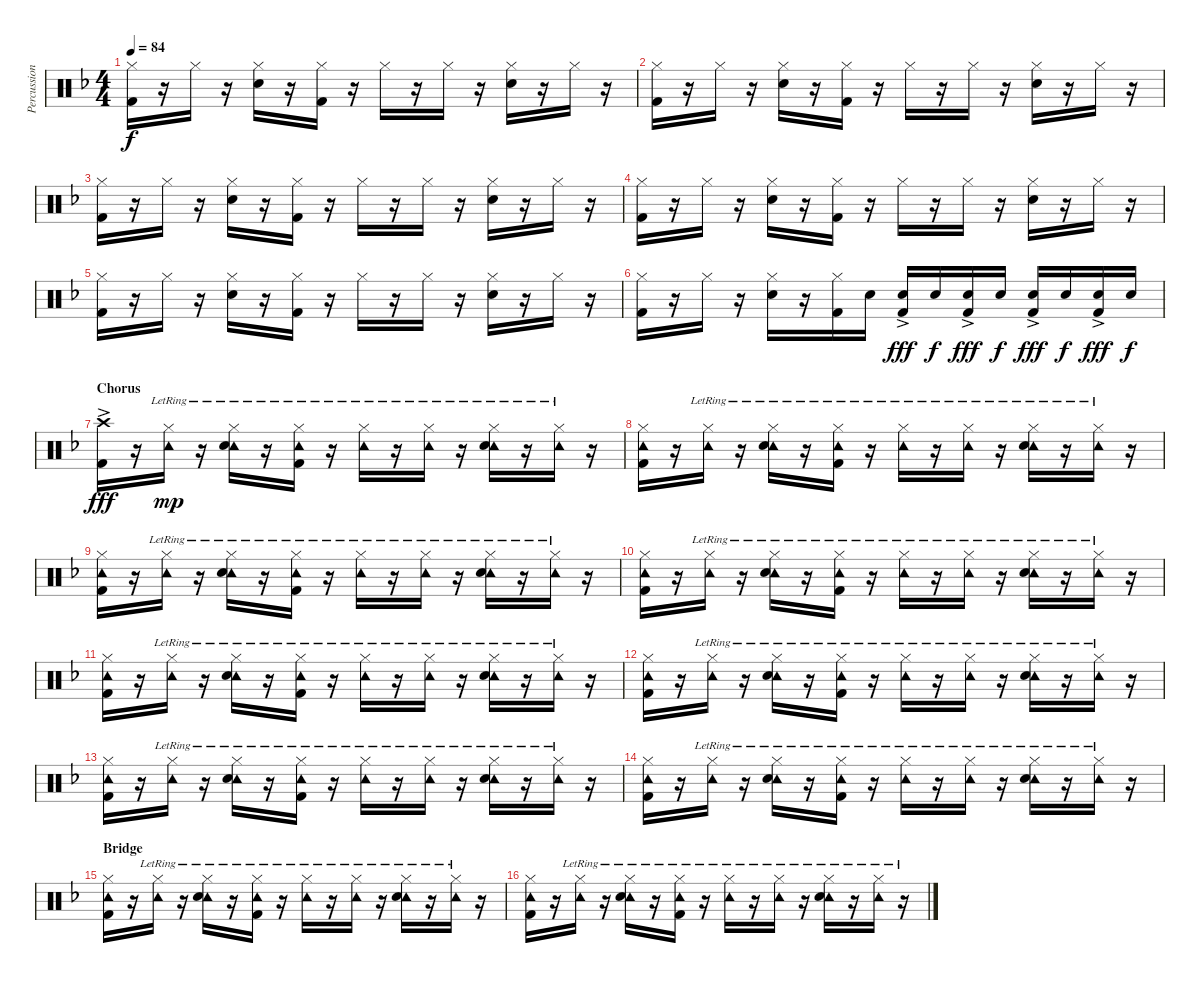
\track ("Percussion" "Percussion") {instrument percussion}
\staff {score}
\articulation defaults
\ts (4 4)
\tempo 84
\clef neutral
\ks f
("Hi-Hat (closed)" "Kick (hit) 2").16{dy f} r.16 "Hi-Hat (closed)".16 r.16 ("Hi-Hat (closed)" "Snare (hit) 2").16 r.16 ("Hi-Hat (closed)" "Kick (hit) 2").16 r.16 "Hi-Hat (closed)".16 r.16 "Hi-Hat (closed)".16 r.16 ("Hi-Hat (closed)" "Snare (hit) 2").16 r.16 "Hi-Hat (closed)".16 r.16 |
("Hi-Hat (closed)" "Kick (hit) 2").16 r.16 "Hi-Hat (closed)".16 r.16 ("Hi-Hat (closed)" "Snare (hit) 2").16 r.16 ("Hi-Hat (closed)" "Kick (hit) 2").16 r.16 "Hi-Hat (closed)".16 r.16 "Hi-Hat (closed)".16 r.16 ("Hi-Hat (closed)" "Snare (hit) 2").16 r.16 "Hi-Hat (closed)".16 r.16 |
("Hi-Hat (closed)" "Kick (hit) 2").16 r.16 "Hi-Hat (closed)".16 r.16 ("Hi-Hat (closed)" "Snare (hit) 2").16 r.16 ("Hi-Hat (closed)" "Kick (hit) 2").16 r.16 "Hi-Hat (closed)".16 r.16 "Hi-Hat (closed)".16 r.16 ("Hi-Hat (closed)" "Snare (hit) 2").16 r.16 "Hi-Hat (closed)".16 r.16 |
("Hi-Hat (closed)" "Kick (hit) 2").16 r.16 "Hi-Hat (closed)".16 r.16 ("Hi-Hat (closed)" "Snare (hit) 2").16 r.16 ("Hi-Hat (closed)" "Kick (hit) 2").16 r.16 "Hi-Hat (closed)".16 r.16 "Hi-Hat (closed)".16 r.16 ("Hi-Hat (closed)" "Snare (hit) 2").16 r.16 "Hi-Hat (closed)".16 r.16 |
("Hi-Hat (closed)" "Kick (hit) 2").16 r.16 "Hi-Hat (closed)".16 r.16 ("Hi-Hat (closed)" "Snare (hit) 2").16 r.16 ("Hi-Hat (closed)" "Kick (hit) 2").16 r.16 "Hi-Hat (closed)".16 r.16 "Hi-Hat (closed)".16 r.16 ("Hi-Hat (closed)" "Snare (hit) 2").16 r.16 "Hi-Hat (closed)".16 r.16 |
("Hi-Hat (closed)" "Kick (hit) 2").16 r.16 "Hi-Hat (closed)".16 r.16 ("Hi-Hat (closed)" "Snare (hit) 2").16 r.16 ("Hi-Hat (closed)" "Kick (hit) 2").16 "Snare (hit) 2".16 ("Snare (hit) 2"{ac} "Kick (hit) 2").16{dy fff} "Snare (hit) 2".16{dy f} ("Snare (hit) 2"{ac} "Kick (hit) 2").16{dy fff} "Snare (hit) 2".16{dy f} ("Snare (hit) 2"{ac} "Kick (hit) 2").16{dy fff} "Snare (hit) 2".16{dy f} ("Snare (hit) 2"{ac} "Kick (hit) 2").16{dy fff} "Snare (hit) 2".16{dy f} |
\section ("" "Chorus")
("Crash high (hit)"{ac} "Kick (hit) 2").16{dy fff} r.16 ("Hi-Hat (closed)" "Tambourine (hit)"{lr}).16{dy mp} r.16 ("Hi-Hat (closed)" "Tambourine (hit)"{lr} "Snare (hit) 2").16 r.16 ("Hi-Hat (closed)" "Tambourine (hit)"{lr} "Kick (hit) 2").16 r.16 ("Hi-Hat (closed)" "Tambourine (hit)"{lr}).16 r.16 ("Hi-Hat (closed)" "Tambourine (hit)"{lr}).16 r.16 ("Hi-Hat (closed)" "Tambourine (hit)"{lr} "Snare (hit) 2").16 r.16 ("Hi-Hat (closed)" "Tambourine (hit)"{lr}).16 r.16 |
("Hi-Hat (closed)" "Tambourine (hit)" "Kick (hit) 2").16 r.16 ("Hi-Hat (closed)" "Tambourine (hit)"{lr}).16 r.16 ("Hi-Hat (closed)" "Tambourine (hit)"{lr} "Snare (hit) 2").16 r.16 ("Hi-Hat (closed)" "Tambourine (hit)"{lr} "Kick (hit) 2").16 r.16 ("Hi-Hat (closed)" "Tambourine (hit)"{lr}).16 r.16 ("Hi-Hat (closed)" "Tambourine (hit)"{lr}).16 r.16 ("Hi-Hat (closed)" "Tambourine (hit)"{lr} "Snare (hit) 2").16 r.16 ("Hi-Hat (closed)" "Tambourine (hit)"{lr}).16 r.16 |
("Hi-Hat (closed)" "Tambourine (hit)" "Kick (hit) 2").16 r.16 ("Hi-Hat (closed)" "Tambourine (hit)"{lr}).16 r.16 ("Hi-Hat (closed)" "Tambourine (hit)"{lr} "Snare (hit) 2").16 r.16 ("Hi-Hat (closed)" "Tambourine (hit)"{lr} "Kick (hit) 2").16 r.16 ("Hi-Hat (closed)" "Tambourine (hit)"{lr}).16 r.16 ("Hi-Hat (closed)" "Tambourine (hit)"{lr}).16 r.16 ("Hi-Hat (closed)" "Tambourine (hit)"{lr} "Snare (hit) 2").16 r.16 ("Hi-Hat (closed)" "Tambourine (hit)"{lr}).16 r.16 |
("Hi-Hat (closed)" "Tambourine (hit)" "Kick (hit) 2").16 r.16 ("Hi-Hat (closed)" "Tambourine (hit)"{lr}).16 r.16 ("Hi-Hat (closed)" "Tambourine (hit)"{lr} "Snare (hit) 2").16 r.16 ("Hi-Hat (closed)" "Tambourine (hit)"{lr} "Kick (hit) 2").16 r.16 ("Hi-Hat (closed)" "Tambourine (hit)"{lr}).16 r.16 ("Hi-Hat (closed)" "Tambourine (hit)"{lr}).16 r.16 ("Hi-Hat (closed)" "Tambourine (hit)"{lr} "Snare (hit) 2").16 r.16 ("Hi-Hat (closed)" "Tambourine (hit)"{lr}).16 r.16 |
("Hi-Hat (closed)" "Tambourine (hit)" "Kick (hit) 2").16 r.16 ("Hi-Hat (closed)" "Tambourine (hit)"{lr}).16 r.16 ("Hi-Hat (closed)" "Tambourine (hit)"{lr} "Snare (hit) 2").16 r.16 ("Hi-Hat (closed)" "Tambourine (hit)"{lr} "Kick (hit) 2").16 r.16 ("Hi-Hat (closed)" "Tambourine (hit)"{lr}).16 r.16 ("Hi-Hat (closed)" "Tambourine (hit)"{lr}).16 r.16 ("Hi-Hat (closed)" "Tambourine (hit)"{lr} "Snare (hit) 2").16 r.16 ("Hi-Hat (closed)" "Tambourine (hit)"{lr}).16 r.16 |
("Hi-Hat (closed)" "Tambourine (hit)" "Kick (hit) 2").16 r.16 ("Hi-Hat (closed)" "Tambourine (hit)"{lr}).16 r.16 ("Hi-Hat (closed)" "Tambourine (hit)"{lr} "Snare (hit) 2").16 r.16 ("Hi-Hat (closed)" "Tambourine (hit)"{lr} "Kick (hit) 2").16 r.16 ("Hi-Hat (closed)" "Tambourine (hit)"{lr}).16 r.16 ("Hi-Hat (closed)" "Tambourine (hit)"{lr}).16 r.16 ("Hi-Hat (closed)" "Tambourine (hit)"{lr} "Snare (hit) 2").16 r.16 ("Hi-Hat (closed)" "Tambourine (hit)"{lr}).16 r.16 |
("Hi-Hat (closed)" "Tambourine (hit)" "Kick (hit) 2").16 r.16 ("Hi-Hat (closed)" "Tambourine (hit)"{lr}).16 r.16 ("Hi-Hat (closed)" "Tambourine (hit)"{lr} "Snare (hit) 2").16 r.16 ("Hi-Hat (closed)" "Tambourine (hit)"{lr} "Kick (hit) 2").16 r.16 ("Hi-Hat (closed)" "Tambourine (hit)"{lr}).16 r.16 ("Hi-Hat (closed)" "Tambourine (hit)"{lr}).16 r.16 ("Hi-Hat (closed)" "Tambourine (hit)"{lr} "Snare (hit) 2").16 r.16 ("Hi-Hat (closed)" "Tambourine (hit)"{lr}).16 r.16 |
("Hi-Hat (closed)" "Tambourine (hit)" "Kick (hit) 2").16 r.16 ("Hi-Hat (closed)" "Tambourine (hit)"{lr}).16 r.16 ("Hi-Hat (closed)" "Tambourine (hit)"{lr} "Snare (hit) 2").16 r.16 ("Hi-Hat (closed)" "Tambourine (hit)"{lr} "Kick (hit) 2").16 r.16 ("Hi-Hat (closed)" "Tambourine (hit)"{lr}).16 r.16 ("Hi-Hat (closed)" "Tambourine (hit)"{lr}).16 r.16 ("Hi-Hat (closed)" "Tambourine (hit)"{lr} "Snare (hit) 2").16 r.16 ("Hi-Hat (closed)" "Tambourine (hit)"{lr}).16 r.16 |
\section ("" "Bridge")
("Hi-Hat (closed)" "Tambourine (hit)" "Kick (hit) 2").16 r.16 ("Hi-Hat (closed)" "Tambourine (hit)"{lr}).16 r.16 ("Hi-Hat (closed)" "Tambourine (hit)"{lr} "Snare (hit) 2").16 r.16 ("Hi-Hat (closed)" "Tambourine (hit)"{lr} "Kick (hit) 2").16 r.16 ("Hi-Hat (closed)" "Tambourine (hit)"{lr}).16 r.16 ("Hi-Hat (closed)" "Tambourine (hit)"{lr}).16 r.16 ("Hi-Hat (closed)" "Tambourine (hit)"{lr} "Snare (hit) 2").16 r.16 ("Hi-Hat (closed)" "Tambourine (hit)"{lr}).16 r.16 |
("Hi-Hat (closed)" "Tambourine (hit)" "Kick (hit) 2").16 r.16 ("Hi-Hat (closed)" "Tambourine (hit)"{lr}).16 r.16 ("Hi-Hat (closed)" "Tambourine (hit)"{lr} "Snare (hit) 2").16 r.16 ("Hi-Hat (closed)" "Tambourine (hit)"{lr} "Kick (hit) 2").16 r.16 ("Hi-Hat (closed)" "Tambourine (hit)"{lr}).16 r.16 ("Hi-Hat (closed)" "Tambourine (hit)"{lr}).16 r.16 ("Hi-Hat (closed)" "Tambourine (hit)"{lr} "Snare (hit) 2").16 r.16 ("Hi-Hat (closed)" "Tambourine (hit)"{lr}).16 r.16
